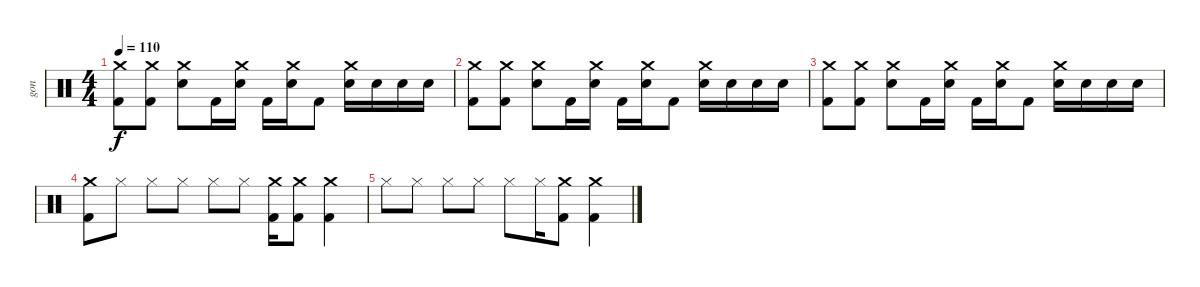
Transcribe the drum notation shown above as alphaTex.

\track ("gon" "gon") {instrument percussion}
\staff {score}
\articulation defaults
\ts (4 4)
\tempo 110
\clef neutral
\ks c
("Crash medium (hit)" "Kick (hit) 2").8{dy f} ("Crash medium (hit)" "Kick (hit) 2").8 ("Crash medium (hit)" "Snare (hit) 2").8 "Kick (hit) 2".16 ("Crash medium (hit)" "Snare (hit) 2").16 "Kick (hit) 2".16 ("Crash medium (hit)" "Snare (hit) 2").16 "Kick (hit) 2".8 ("Crash medium (hit)" "Snare (hit) 2").16 "Snare (hit) 2".16 "Snare (hit) 2".16 "Snare (hit) 2".16 |
("Crash medium (hit)" "Kick (hit) 2").8 ("Crash medium (hit)" "Kick (hit) 2").8 ("Crash medium (hit)" "Snare (hit) 2").8 "Kick (hit) 2".16 ("Crash medium (hit)" "Snare (hit) 2").16 "Kick (hit) 2".16 ("Crash medium (hit)" "Snare (hit) 2").16 "Kick (hit) 2".8 ("Crash medium (hit)" "Snare (hit) 2").16 "Snare (hit) 2".16 "Snare (hit) 2".16 "Snare (hit) 2".16 |
("Crash medium (hit)" "Kick (hit) 2").8 ("Crash medium (hit)" "Kick (hit) 2").8 ("Crash medium (hit)" "Snare (hit) 2").8 "Kick (hit) 2".16 ("Crash medium (hit)" "Snare (hit) 2").16 "Kick (hit) 2".16 ("Crash medium (hit)" "Snare (hit) 2").16 "Kick (hit) 2".8 ("Crash medium (hit)" "Snare (hit) 2").16 "Snare (hit) 2".16 "Snare (hit) 2".16 "Snare (hit) 2".16 |
("Crash medium (hit)" "Kick (hit) 2").8 "Hi-Hat (closed)".8 "Hi-Hat (closed)".8 "Hi-Hat (closed)".8 "Hi-Hat (closed)".8 "Hi-Hat (closed)".8 ("Crash medium (hit)" "Kick (hit) 2").16 ("Crash medium (hit)" "Kick (hit) 2").8 ("Crash medium (hit)" "Kick (hit) 2").4 |
"Hi-Hat (closed)".8 "Hi-Hat (closed)".8 "Hi-Hat (closed)".8 "Hi-Hat (closed)".8 "Hi-Hat (closed)".8 "Hi-Hat (closed)".16 ("Crash medium (hit)" "Kick (hit) 2").8 ("Crash medium (hit)" "Kick (hit) 2").4
